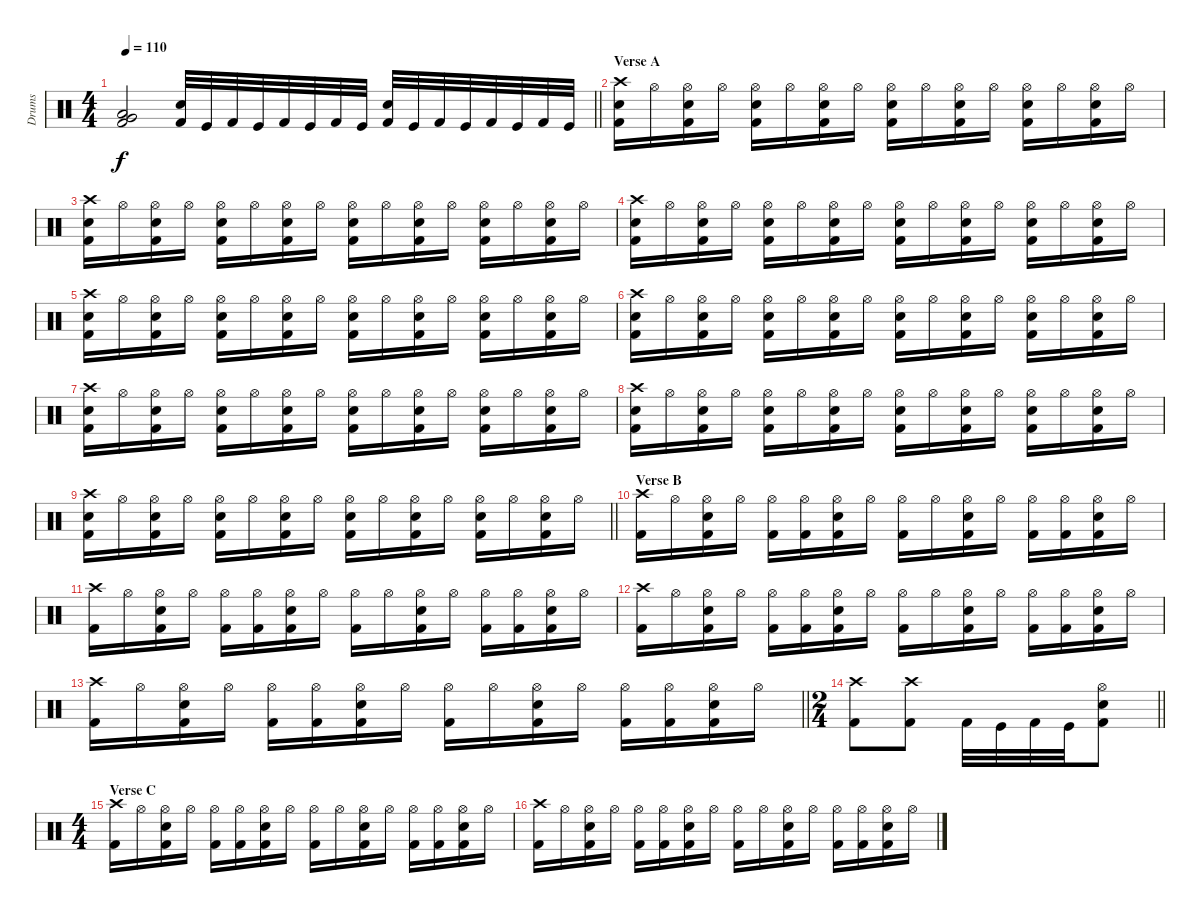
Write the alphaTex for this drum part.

\track ("Drums" "Drums") {instrument percussion}
\staff {score}
\articulation defaults
\ts (4 4)
\tempo 110
\clef neutral
\barLineRight lightlight
\ks c
("Kick (hit) 2" "Very Low Tom (hit)" "Low Tom (hit)").2{bd 120 dy f} ("Kick (hit) 2" "Snare (hit) 2").32 "Kick (hit)".32 "Kick (hit) 2".32 "Kick (hit)".32 "Kick (hit) 2".32 "Kick (hit)".32 "Kick (hit) 2".32 "Kick (hit)".32 ("Kick (hit) 2" "Snare (hit) 2").32 "Kick (hit)".32 "Kick (hit) 2".32 "Kick (hit)".32 "Kick (hit) 2".32 "Kick (hit)".32 "Kick (hit) 2".32 "Kick (hit)".32 |
\section ("" "Verse A")
("Kick (hit) 2" "Snare (hit) 2" "Crash high (hit)").16 "Hi-Hat (open)".16 ("Kick (hit) 2" "Snare (hit) 2" "Hi-Hat (open)").16 "Hi-Hat (open)".16 ("Kick (hit) 2" "Snare (hit) 2" "Hi-Hat (open)").16 "Hi-Hat (open)".16 ("Kick (hit) 2" "Snare (hit) 2" "Hi-Hat (open)").16 "Hi-Hat (open)".16 ("Kick (hit) 2" "Snare (hit) 2" "Hi-Hat (open)").16 "Hi-Hat (open)".16 ("Kick (hit) 2" "Snare (hit) 2" "Hi-Hat (open)").16 "Hi-Hat (open)".16 ("Kick (hit) 2" "Snare (hit) 2" "Hi-Hat (open)").16 "Hi-Hat (open)".16 ("Kick (hit) 2" "Snare (hit) 2" "Hi-Hat (open)").16 "Hi-Hat (open)".16 |
("Kick (hit) 2" "Snare (hit) 2" "Crash high (hit)").16 "Hi-Hat (open)".16 ("Kick (hit) 2" "Snare (hit) 2" "Hi-Hat (open)").16 "Hi-Hat (open)".16 ("Kick (hit) 2" "Snare (hit) 2" "Hi-Hat (open)").16 "Hi-Hat (open)".16 ("Kick (hit) 2" "Snare (hit) 2" "Hi-Hat (open)").16 "Hi-Hat (open)".16 ("Kick (hit) 2" "Snare (hit) 2" "Hi-Hat (open)").16 "Hi-Hat (open)".16 ("Kick (hit) 2" "Snare (hit) 2" "Hi-Hat (open)").16 "Hi-Hat (open)".16 ("Kick (hit) 2" "Snare (hit) 2" "Hi-Hat (open)").16 "Hi-Hat (open)".16 ("Kick (hit) 2" "Snare (hit) 2" "Hi-Hat (open)").16 "Hi-Hat (open)".16 |
("Kick (hit) 2" "Snare (hit) 2" "Crash high (hit)").16 "Hi-Hat (open)".16 ("Kick (hit) 2" "Snare (hit) 2" "Hi-Hat (open)").16 "Hi-Hat (open)".16 ("Kick (hit) 2" "Snare (hit) 2" "Hi-Hat (open)").16 "Hi-Hat (open)".16 ("Kick (hit) 2" "Snare (hit) 2" "Hi-Hat (open)").16 "Hi-Hat (open)".16 ("Kick (hit) 2" "Snare (hit) 2" "Hi-Hat (open)").16 "Hi-Hat (open)".16 ("Kick (hit) 2" "Snare (hit) 2" "Hi-Hat (open)").16 "Hi-Hat (open)".16 ("Kick (hit) 2" "Snare (hit) 2" "Hi-Hat (open)").16 "Hi-Hat (open)".16 ("Kick (hit) 2" "Snare (hit) 2" "Hi-Hat (open)").16 "Hi-Hat (open)".16 |
("Kick (hit) 2" "Snare (hit) 2" "Crash high (hit)").16 "Hi-Hat (open)".16 ("Kick (hit) 2" "Snare (hit) 2" "Hi-Hat (open)").16 "Hi-Hat (open)".16 ("Kick (hit) 2" "Snare (hit) 2" "Hi-Hat (open)").16 "Hi-Hat (open)".16 ("Kick (hit) 2" "Snare (hit) 2" "Hi-Hat (open)").16 "Hi-Hat (open)".16 ("Kick (hit) 2" "Snare (hit) 2" "Hi-Hat (open)").16 "Hi-Hat (open)".16 ("Kick (hit) 2" "Snare (hit) 2" "Hi-Hat (open)").16 "Hi-Hat (open)".16 ("Kick (hit) 2" "Snare (hit) 2" "Hi-Hat (open)").16 "Hi-Hat (open)".16 ("Kick (hit) 2" "Snare (hit) 2" "Hi-Hat (open)").16 "Hi-Hat (open)".16 |
("Kick (hit) 2" "Snare (hit) 2" "Crash high (hit)").16 "Hi-Hat (open)".16 ("Kick (hit) 2" "Snare (hit) 2" "Hi-Hat (open)").16 "Hi-Hat (open)".16 ("Kick (hit) 2" "Snare (hit) 2" "Hi-Hat (open)").16 "Hi-Hat (open)".16 ("Kick (hit) 2" "Snare (hit) 2" "Hi-Hat (open)").16 "Hi-Hat (open)".16 ("Kick (hit) 2" "Snare (hit) 2" "Hi-Hat (open)").16 "Hi-Hat (open)".16 ("Kick (hit) 2" "Snare (hit) 2" "Hi-Hat (open)").16 "Hi-Hat (open)".16 ("Kick (hit) 2" "Snare (hit) 2" "Hi-Hat (open)").16 "Hi-Hat (open)".16 ("Kick (hit) 2" "Snare (hit) 2" "Hi-Hat (open)").16 "Hi-Hat (open)".16 |
("Kick (hit) 2" "Snare (hit) 2" "Crash high (hit)").16 "Hi-Hat (open)".16 ("Kick (hit) 2" "Snare (hit) 2" "Hi-Hat (open)").16 "Hi-Hat (open)".16 ("Kick (hit) 2" "Snare (hit) 2" "Hi-Hat (open)").16 "Hi-Hat (open)".16 ("Kick (hit) 2" "Snare (hit) 2" "Hi-Hat (open)").16 "Hi-Hat (open)".16 ("Kick (hit) 2" "Snare (hit) 2" "Hi-Hat (open)").16 "Hi-Hat (open)".16 ("Kick (hit) 2" "Snare (hit) 2" "Hi-Hat (open)").16 "Hi-Hat (open)".16 ("Kick (hit) 2" "Snare (hit) 2" "Hi-Hat (open)").16 "Hi-Hat (open)".16 ("Kick (hit) 2" "Snare (hit) 2" "Hi-Hat (open)").16 "Hi-Hat (open)".16 |
("Kick (hit) 2" "Snare (hit) 2" "Crash high (hit)").16 "Hi-Hat (open)".16 ("Kick (hit) 2" "Snare (hit) 2" "Hi-Hat (open)").16 "Hi-Hat (open)".16 ("Kick (hit) 2" "Snare (hit) 2" "Hi-Hat (open)").16 "Hi-Hat (open)".16 ("Kick (hit) 2" "Snare (hit) 2" "Hi-Hat (open)").16 "Hi-Hat (open)".16 ("Kick (hit) 2" "Snare (hit) 2" "Hi-Hat (open)").16 "Hi-Hat (open)".16 ("Kick (hit) 2" "Snare (hit) 2" "Hi-Hat (open)").16 "Hi-Hat (open)".16 ("Kick (hit) 2" "Snare (hit) 2" "Hi-Hat (open)").16 "Hi-Hat (open)".16 ("Kick (hit) 2" "Snare (hit) 2" "Hi-Hat (open)").16 "Hi-Hat (open)".16 |
\barLineRight lightlight
("Kick (hit) 2" "Snare (hit) 2" "Crash high (hit)").16 "Hi-Hat (open)".16 ("Kick (hit) 2" "Snare (hit) 2" "Hi-Hat (open)").16 "Hi-Hat (open)".16 ("Kick (hit) 2" "Snare (hit) 2" "Hi-Hat (open)").16 "Hi-Hat (open)".16 ("Kick (hit) 2" "Snare (hit) 2" "Hi-Hat (open)").16 "Hi-Hat (open)".16 ("Kick (hit) 2" "Snare (hit) 2" "Hi-Hat (open)").16 "Hi-Hat (open)".16 ("Kick (hit) 2" "Snare (hit) 2" "Hi-Hat (open)").16 "Hi-Hat (open)".16 ("Kick (hit) 2" "Snare (hit) 2" "Hi-Hat (open)").16 "Hi-Hat (open)".16 ("Kick (hit) 2" "Snare (hit) 2" "Hi-Hat (open)").16 "Hi-Hat (open)".16 |
\section ("" "Verse B")
("Kick (hit) 2" "Crash high (hit)").16 "Hi-Hat (open)".16 ("Kick (hit) 2" "Snare (hit) 2" "Hi-Hat (open)").16 "Hi-Hat (open)".16 ("Kick (hit) 2" "Hi-Hat (open)").16 ("Kick (hit) 2" "Hi-Hat (open)").16 ("Kick (hit) 2" "Snare (hit) 2" "Hi-Hat (open)").16 "Hi-Hat (open)".16 ("Kick (hit) 2" "Hi-Hat (open)").16 "Hi-Hat (open)".16 ("Kick (hit) 2" "Snare (hit) 2" "Hi-Hat (open)").16 "Hi-Hat (open)".16 ("Kick (hit) 2" "Hi-Hat (open)").16 ("Kick (hit) 2" "Hi-Hat (open)").16 ("Kick (hit) 2" "Snare (hit) 2" "Hi-Hat (open)").16 "Hi-Hat (open)".16 |
("Kick (hit) 2" "Crash high (hit)").16 "Hi-Hat (open)".16 ("Kick (hit) 2" "Snare (hit) 2" "Hi-Hat (open)").16 "Hi-Hat (open)".16 ("Kick (hit) 2" "Hi-Hat (open)").16 ("Kick (hit) 2" "Hi-Hat (open)").16 ("Kick (hit) 2" "Snare (hit) 2" "Hi-Hat (open)").16 "Hi-Hat (open)".16 ("Kick (hit) 2" "Hi-Hat (open)").16 "Hi-Hat (open)".16 ("Kick (hit) 2" "Snare (hit) 2" "Hi-Hat (open)").16 "Hi-Hat (open)".16 ("Kick (hit) 2" "Hi-Hat (open)").16 ("Kick (hit) 2" "Hi-Hat (open)").16 ("Kick (hit) 2" "Snare (hit) 2" "Hi-Hat (open)").16 "Hi-Hat (open)".16 |
("Kick (hit) 2" "Crash high (hit)").16 "Hi-Hat (open)".16 ("Kick (hit) 2" "Snare (hit) 2" "Hi-Hat (open)").16 "Hi-Hat (open)".16 ("Kick (hit) 2" "Hi-Hat (open)").16 ("Kick (hit) 2" "Hi-Hat (open)").16 ("Kick (hit) 2" "Snare (hit) 2" "Hi-Hat (open)").16 "Hi-Hat (open)".16 ("Kick (hit) 2" "Hi-Hat (open)").16 "Hi-Hat (open)".16 ("Kick (hit) 2" "Snare (hit) 2" "Hi-Hat (open)").16 "Hi-Hat (open)".16 ("Kick (hit) 2" "Hi-Hat (open)").16 ("Kick (hit) 2" "Hi-Hat (open)").16 ("Kick (hit) 2" "Snare (hit) 2" "Hi-Hat (open)").16 "Hi-Hat (open)".16 |
\barLineRight lightlight
("Kick (hit) 2" "Crash high (hit)").16 "Hi-Hat (open)".16 ("Kick (hit) 2" "Snare (hit) 2" "Hi-Hat (open)").16 "Hi-Hat (open)".16 ("Kick (hit) 2" "Hi-Hat (open)").16 ("Kick (hit) 2" "Hi-Hat (open)").16 ("Kick (hit) 2" "Snare (hit) 2" "Hi-Hat (open)").16 "Hi-Hat (open)".16 ("Kick (hit) 2" "Hi-Hat (open)").16 "Hi-Hat (open)".16 ("Kick (hit) 2" "Snare (hit) 2" "Hi-Hat (open)").16 "Hi-Hat (open)".16 ("Kick (hit) 2" "Hi-Hat (open)").16 ("Kick (hit) 2" "Hi-Hat (open)").16 ("Kick (hit) 2" "Snare (hit) 2" "Hi-Hat (open)").16 "Hi-Hat (open)".16 |
\ts (2 4)
\barLineRight lightlight
("Kick (hit) 2" "Crash high (hit)").8 ("Kick (hit) 2" "Crash high (hit)").8 "Kick (hit) 2".32 "Kick (hit)".32 "Kick (hit) 2".32 "Kick (hit)".32 ("Kick (hit) 2" "Snare (hit) 2" "Hi-Hat (open)").8 |
\ts (4 4)
\section ("" "Verse C")
("Kick (hit) 2" "Crash high (hit)").16 "Hi-Hat (open)".16 ("Kick (hit) 2" "Snare (hit) 2" "Hi-Hat (open)").16 "Hi-Hat (open)".16 ("Kick (hit) 2" "Hi-Hat (open)").16 ("Kick (hit) 2" "Hi-Hat (open)").16 ("Kick (hit) 2" "Snare (hit) 2" "Hi-Hat (open)").16 "Hi-Hat (open)".16 ("Kick (hit) 2" "Hi-Hat (open)").16 "Hi-Hat (open)".16 ("Kick (hit) 2" "Snare (hit) 2" "Hi-Hat (open)").16 "Hi-Hat (open)".16 ("Kick (hit) 2" "Hi-Hat (open)").16 ("Kick (hit) 2" "Hi-Hat (open)").16 ("Kick (hit) 2" "Snare (hit) 2" "Hi-Hat (open)").16 "Hi-Hat (open)".16 |
("Kick (hit) 2" "Crash high (hit)").16 "Hi-Hat (open)".16 ("Kick (hit) 2" "Snare (hit) 2" "Hi-Hat (open)").16 "Hi-Hat (open)".16 ("Kick (hit) 2" "Hi-Hat (open)").16 ("Kick (hit) 2" "Hi-Hat (open)").16 ("Kick (hit) 2" "Snare (hit) 2" "Hi-Hat (open)").16 "Hi-Hat (open)".16 ("Kick (hit) 2" "Hi-Hat (open)").16 "Hi-Hat (open)".16 ("Kick (hit) 2" "Snare (hit) 2" "Hi-Hat (open)").16 "Hi-Hat (open)".16 ("Kick (hit) 2" "Hi-Hat (open)").16 ("Kick (hit) 2" "Hi-Hat (open)").16 ("Kick (hit) 2" "Snare (hit) 2" "Hi-Hat (open)").16 "Hi-Hat (open)".16
